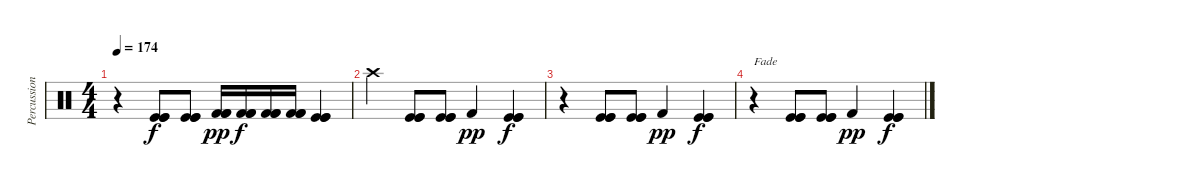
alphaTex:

\track ("Percussions" "Percussion") {instrument percussion}
\staff {score}
\articulation defaults
\ts (4 4)
\tempo 174
\clef neutral
\ks c
r.4{dy f} ("Kick (hit)" "Kick (hit)" "Kick (hit)").8 ("Kick (hit)" "Kick (hit)" "Kick (hit)").8 ("Kick (hit) 2" "Kick (hit) 2" "Kick (hit) 2").16{dy pp} ("Kick (hit) 2" "Kick (hit) 2" "Kick (hit) 2").16{dy f} ("Kick (hit) 2" "Kick (hit) 2" "Kick (hit) 2").16 ("Kick (hit) 2" "Kick (hit) 2" "Kick (hit) 2").16 ("Kick (hit)" "Kick (hit)" "Kick (hit)").4 |
"Crash high (hit)".4{volume 4} ("Kick (hit)" "Kick (hit)" "Kick (hit)").8 ("Kick (hit)" "Kick (hit)" "Kick (hit)").8 "Kick (hit) 2".4{dy pp} ("Kick (hit)" "Kick (hit)" "Kick (hit)").4{dy f} |
r.4 ("Kick (hit)" "Kick (hit)" "Kick (hit)").8 ("Kick (hit)" "Kick (hit)" "Kick (hit)").8 "Kick (hit) 2".4{dy pp} ("Kick (hit)" "Kick (hit)" "Kick (hit)").4{dy f} |
r.4{txt "Fade" volume 0} ("Kick (hit)" "Kick (hit)" "Kick (hit)").8 ("Kick (hit)" "Kick (hit)" "Kick (hit)").8 "Kick (hit) 2".4{dy pp} ("Kick (hit)" "Kick (hit)" "Kick (hit)").4{dy f}
